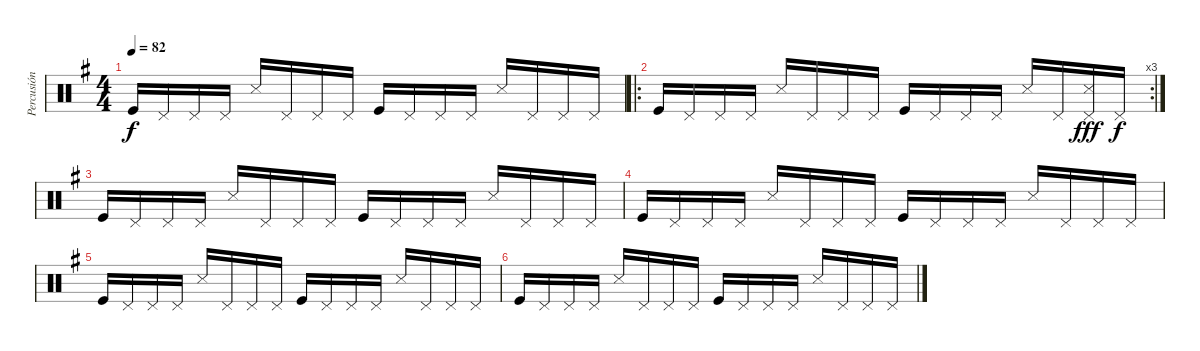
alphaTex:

\track ("Percusión" "Percusión") {instrument percussion}
\staff {score}
\articulation defaults
\ts (4 4)
\tempo 82
\clef neutral
\ks g "Kick (hit)".16{dy f} "Pedal Hi-Hat (hit)".16 "Pedal Hi-Hat (hit)".16 "Pedal Hi-Hat (hit)".16 "Snare (side stick) 3".16 "Pedal Hi-Hat (hit)".16 "Pedal Hi-Hat (hit)".16 "Pedal Hi-Hat (hit)".16 "Kick (hit)".16 "Pedal Hi-Hat (hit)".16 "Pedal Hi-Hat (hit)".16 "Pedal Hi-Hat (hit)".16 "Snare (side stick) 3".16 "Pedal Hi-Hat (hit)".16 "Pedal Hi-Hat (hit)".16 "Pedal Hi-Hat (hit)".16
|
\ro
\rc 3 "Kick (hit)".16 "Pedal Hi-Hat (hit)".16 "Pedal Hi-Hat (hit)".16 "Pedal Hi-Hat (hit)".16 "Snare (side stick) 3".16 "Pedal Hi-Hat (hit)".16 "Pedal Hi-Hat (hit)".16 "Pedal Hi-Hat (hit)".16 "Kick (hit)".16 "Pedal Hi-Hat (hit)".16 "Pedal Hi-Hat (hit)".16 "Pedal Hi-Hat (hit)".16 "Snare (side stick) 3".16 "Pedal Hi-Hat (hit)".16
("Pedal Hi-Hat (hit)" "Snare (side stick) 3").16{dy fff} "Pedal Hi-Hat (hit)".16{dy f} |
"Kick (hit)".16 "Pedal Hi-Hat (hit)".16 "Pedal Hi-Hat (hit)".16 "Pedal Hi-Hat (hit)".16 "Snare (side stick) 3".16 "Pedal Hi-Hat (hit)".16 "Pedal Hi-Hat (hit)".16 "Pedal Hi-Hat (hit)".16 "Kick (hit)".16 "Pedal Hi-Hat (hit)".16 "Pedal Hi-Hat (hit)".16 "Pedal Hi-Hat (hit)".16 "Snare (side stick) 3".16 "Pedal Hi-Hat (hit)".16 "Pedal Hi-Hat (hit)".16 "Pedal Hi-Hat (hit)".16 |
"Kick (hit)".16 "Pedal Hi-Hat (hit)".16 "Pedal Hi-Hat (hit)".16 "Pedal Hi-Hat (hit)".16 "Snare (side stick) 3".16 "Pedal Hi-Hat (hit)".16 "Pedal Hi-Hat (hit)".16 "Pedal Hi-Hat (hit)".16 "Kick (hit)".16 "Pedal Hi-Hat (hit)".16 "Pedal Hi-Hat (hit)".16 "Pedal Hi-Hat (hit)".16 "Snare (side stick) 3".16 "Pedal Hi-Hat (hit)".16 "Pedal Hi-Hat (hit)".16 "Pedal Hi-Hat (hit)".16 |
"Kick (hit)".16 "Pedal Hi-Hat (hit)".16 "Pedal Hi-Hat (hit)".16 "Pedal Hi-Hat (hit)".16 "Snare (side stick) 3".16 "Pedal Hi-Hat (hit)".16 "Pedal Hi-Hat (hit)".16 "Pedal Hi-Hat (hit)".16 "Kick (hit)".16 "Pedal Hi-Hat (hit)".16 "Pedal Hi-Hat (hit)".16 "Pedal Hi-Hat (hit)".16 "Snare (side stick) 3".16 "Pedal Hi-Hat (hit)".16 "Pedal Hi-Hat (hit)".16 "Pedal Hi-Hat (hit)".16 |
"Kick (hit)".16 "Pedal Hi-Hat (hit)".16 "Pedal Hi-Hat (hit)".16 "Pedal Hi-Hat (hit)".16 "Snare (side stick) 3".16 "Pedal Hi-Hat (hit)".16 "Pedal Hi-Hat (hit)".16 "Pedal Hi-Hat (hit)".16 "Kick (hit)".16 "Pedal Hi-Hat (hit)".16 "Pedal Hi-Hat (hit)".16 "Pedal Hi-Hat (hit)".16 "Snare (side stick) 3".16 "Pedal Hi-Hat (hit)".16 "Pedal Hi-Hat (hit)".16 "Pedal Hi-Hat (hit)".16
